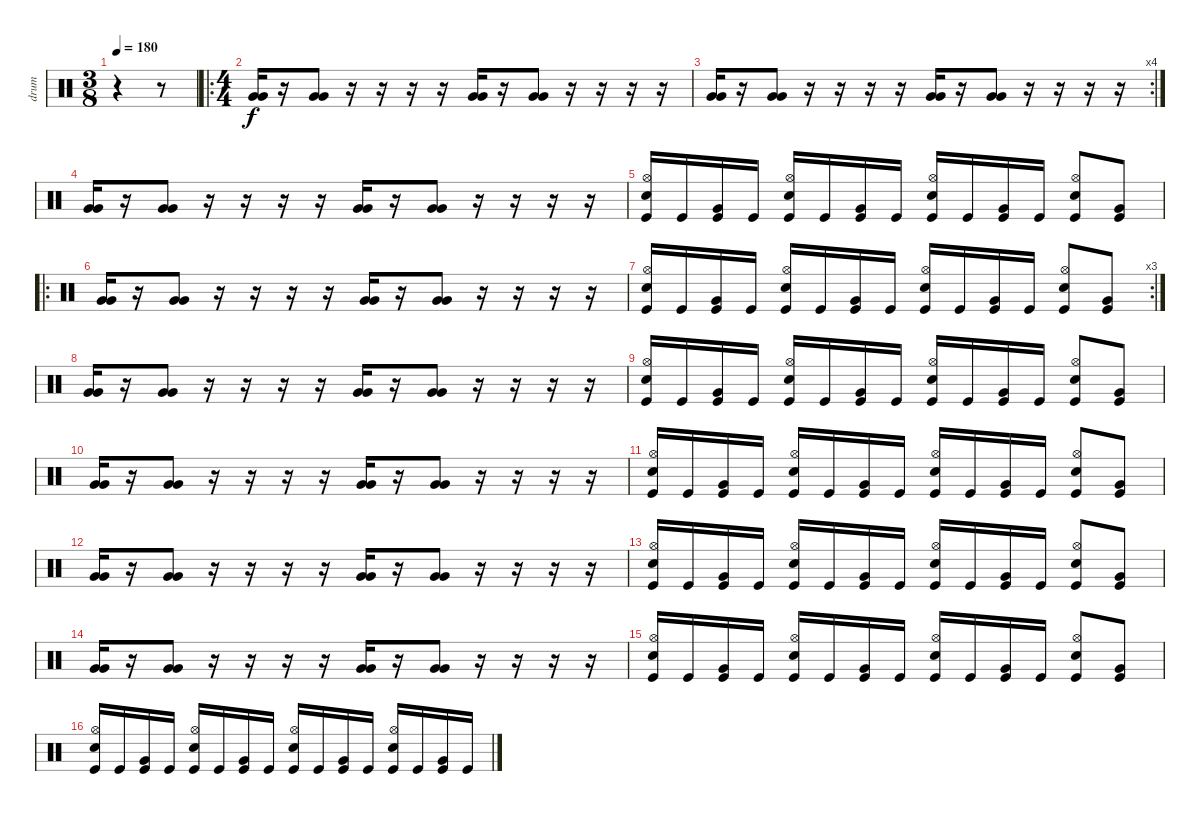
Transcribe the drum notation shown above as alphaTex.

\track ("drum" "drum") {instrument percussion}
\staff {score}
\articulation defaults
\ts (3 8)
\tempo 180
\clef neutral
\ks c
r.4{dy f} r.8 |
\ro
\ts (4 4)
("Very Low Tom (hit)" "Very Low Tom (hit)").16 r.16 ("Very Low Tom (hit)" "Very Low Tom (hit)").8 r.16 r.16 r.16 r.16 ("Very Low Tom (hit)" "Very Low Tom (hit)").16 r.16 ("Very Low Tom (hit)" "Very Low Tom (hit)").8 r.16 r.16 r.16 r.16 |
\rc 4
("Very Low Tom (hit)" "Very Low Tom (hit)").16 r.16 ("Very Low Tom (hit)" "Very Low Tom (hit)").8 r.16 r.16 r.16 r.16 ("Very Low Tom (hit)" "Very Low Tom (hit)").16 r.16 ("Very Low Tom (hit)" "Very Low Tom (hit)").8 r.16 r.16 r.16 r.16 |
("Very Low Tom (hit)" "Very Low Tom (hit)").16 r.16 ("Very Low Tom (hit)" "Very Low Tom (hit)").8 r.16 r.16 r.16 r.16 ("Very Low Tom (hit)" "Very Low Tom (hit)").16 r.16 ("Very Low Tom (hit)" "Very Low Tom (hit)").8 r.16 r.16 r.16 r.16 |
("Kick (hit)" "Hi-Hat (open)" "Snare (hit) 2").16 "Kick (hit)".16 ("Kick (hit)" "Very Low Tom (hit)").16 "Kick (hit)".16 ("Kick (hit)" "Hi-Hat (open)" "Snare (hit) 2").16 "Kick (hit)".16 ("Kick (hit)" "Very Low Tom (hit)").16 "Kick (hit)".16 ("Kick (hit)" "Hi-Hat (open)" "Snare (hit) 2").16 "Kick (hit)".16 ("Kick (hit)" "Very Low Tom (hit)").16 "Kick (hit)".16 ("Kick (hit)" "Hi-Hat (open)" "Snare (hit) 2").8 ("Kick (hit)" "Very Low Tom (hit)").8 |
\ro
("Very Low Tom (hit)" "Very Low Tom (hit)").16 r.16 ("Very Low Tom (hit)" "Very Low Tom (hit)").8 r.16 r.16 r.16 r.16 ("Very Low Tom (hit)" "Very Low Tom (hit)").16 r.16 ("Very Low Tom (hit)" "Very Low Tom (hit)").8 r.16 r.16 r.16 r.16 |
\rc 3
("Kick (hit)" "Hi-Hat (open)" "Snare (hit) 2").16 "Kick (hit)".16 ("Kick (hit)" "Very Low Tom (hit)").16 "Kick (hit)".16 ("Kick (hit)" "Hi-Hat (open)" "Snare (hit) 2").16 "Kick (hit)".16 ("Kick (hit)" "Very Low Tom (hit)").16 "Kick (hit)".16 ("Kick (hit)" "Hi-Hat (open)" "Snare (hit) 2").16 "Kick (hit)".16 ("Kick (hit)" "Very Low Tom (hit)").16 "Kick (hit)".16 ("Kick (hit)" "Hi-Hat (open)" "Snare (hit) 2").8 ("Kick (hit)" "Very Low Tom (hit)").8 |
("Very Low Tom (hit)" "Very Low Tom (hit)").16 r.16 ("Very Low Tom (hit)" "Very Low Tom (hit)").8 r.16 r.16 r.16 r.16 ("Very Low Tom (hit)" "Very Low Tom (hit)").16 r.16 ("Very Low Tom (hit)" "Very Low Tom (hit)").8 r.16 r.16 r.16 r.16 |
("Kick (hit)" "Hi-Hat (open)" "Snare (hit) 2").16 "Kick (hit)".16 ("Kick (hit)" "Very Low Tom (hit)").16 "Kick (hit)".16 ("Kick (hit)" "Hi-Hat (open)" "Snare (hit) 2").16 "Kick (hit)".16 ("Kick (hit)" "Very Low Tom (hit)").16 "Kick (hit)".16 ("Kick (hit)" "Hi-Hat (open)" "Snare (hit) 2").16 "Kick (hit)".16 ("Kick (hit)" "Very Low Tom (hit)").16 "Kick (hit)".16 ("Kick (hit)" "Hi-Hat (open)" "Snare (hit) 2").8 ("Kick (hit)" "Very Low Tom (hit)").8 |
("Very Low Tom (hit)" "Very Low Tom (hit)").16 r.16 ("Very Low Tom (hit)" "Very Low Tom (hit)").8 r.16 r.16 r.16 r.16 ("Very Low Tom (hit)" "Very Low Tom (hit)").16 r.16 ("Very Low Tom (hit)" "Very Low Tom (hit)").8 r.16 r.16 r.16 r.16 |
("Kick (hit)" "Hi-Hat (open)" "Snare (hit) 2").16 "Kick (hit)".16 ("Kick (hit)" "Very Low Tom (hit)").16 "Kick (hit)".16 ("Kick (hit)" "Hi-Hat (open)" "Snare (hit) 2").16 "Kick (hit)".16 ("Kick (hit)" "Very Low Tom (hit)").16 "Kick (hit)".16 ("Kick (hit)" "Hi-Hat (open)" "Snare (hit) 2").16 "Kick (hit)".16 ("Kick (hit)" "Very Low Tom (hit)").16 "Kick (hit)".16 ("Kick (hit)" "Hi-Hat (open)" "Snare (hit) 2").8 ("Kick (hit)" "Very Low Tom (hit)").8 |
("Very Low Tom (hit)" "Very Low Tom (hit)").16 r.16 ("Very Low Tom (hit)" "Very Low Tom (hit)").8 r.16 r.16 r.16 r.16 ("Very Low Tom (hit)" "Very Low Tom (hit)").16 r.16 ("Very Low Tom (hit)" "Very Low Tom (hit)").8 r.16 r.16 r.16 r.16 |
("Kick (hit)" "Hi-Hat (open)" "Snare (hit) 2").16 "Kick (hit)".16 ("Kick (hit)" "Very Low Tom (hit)").16 "Kick (hit)".16 ("Kick (hit)" "Hi-Hat (open)" "Snare (hit) 2").16 "Kick (hit)".16 ("Kick (hit)" "Very Low Tom (hit)").16 "Kick (hit)".16 ("Kick (hit)" "Hi-Hat (open)" "Snare (hit) 2").16 "Kick (hit)".16 ("Kick (hit)" "Very Low Tom (hit)").16 "Kick (hit)".16 ("Kick (hit)" "Hi-Hat (open)" "Snare (hit) 2").8 ("Kick (hit)" "Very Low Tom (hit)").8 |
("Very Low Tom (hit)" "Very Low Tom (hit)").16 r.16 ("Very Low Tom (hit)" "Very Low Tom (hit)").8 r.16 r.16 r.16 r.16 ("Very Low Tom (hit)" "Very Low Tom (hit)").16 r.16 ("Very Low Tom (hit)" "Very Low Tom (hit)").8 r.16 r.16 r.16 r.16 |
("Kick (hit)" "Hi-Hat (open)" "Snare (hit) 2").16 "Kick (hit)".16 ("Kick (hit)" "Very Low Tom (hit)").16 "Kick (hit)".16 ("Kick (hit)" "Hi-Hat (open)" "Snare (hit) 2").16 "Kick (hit)".16 ("Kick (hit)" "Very Low Tom (hit)").16 "Kick (hit)".16 ("Kick (hit)" "Hi-Hat (open)" "Snare (hit) 2").16 "Kick (hit)".16 ("Kick (hit)" "Very Low Tom (hit)").16 "Kick (hit)".16 ("Kick (hit)" "Hi-Hat (open)" "Snare (hit) 2").8 ("Kick (hit)" "Very Low Tom (hit)").8 |
("Kick (hit)" "Snare (hit) 2" "Hi-Hat (open)").16 "Kick (hit)".16 ("Kick (hit)" "Very Low Tom (hit)").16 "Kick (hit)".16 ("Kick (hit)" "Snare (hit) 2" "Hi-Hat (open)").16 "Kick (hit)".16 ("Kick (hit)" "Very Low Tom (hit)").16 "Kick (hit)".16 ("Kick (hit)" "Snare (hit) 2" "Hi-Hat (open)").16 "Kick (hit)".16 ("Kick (hit)" "Very Low Tom (hit)").16 "Kick (hit)".16 ("Kick (hit)" "Snare (hit) 2" "Hi-Hat (open)").16 "Kick (hit)".16 ("Kick (hit)" "Very Low Tom (hit)").16 "Kick (hit)".16
